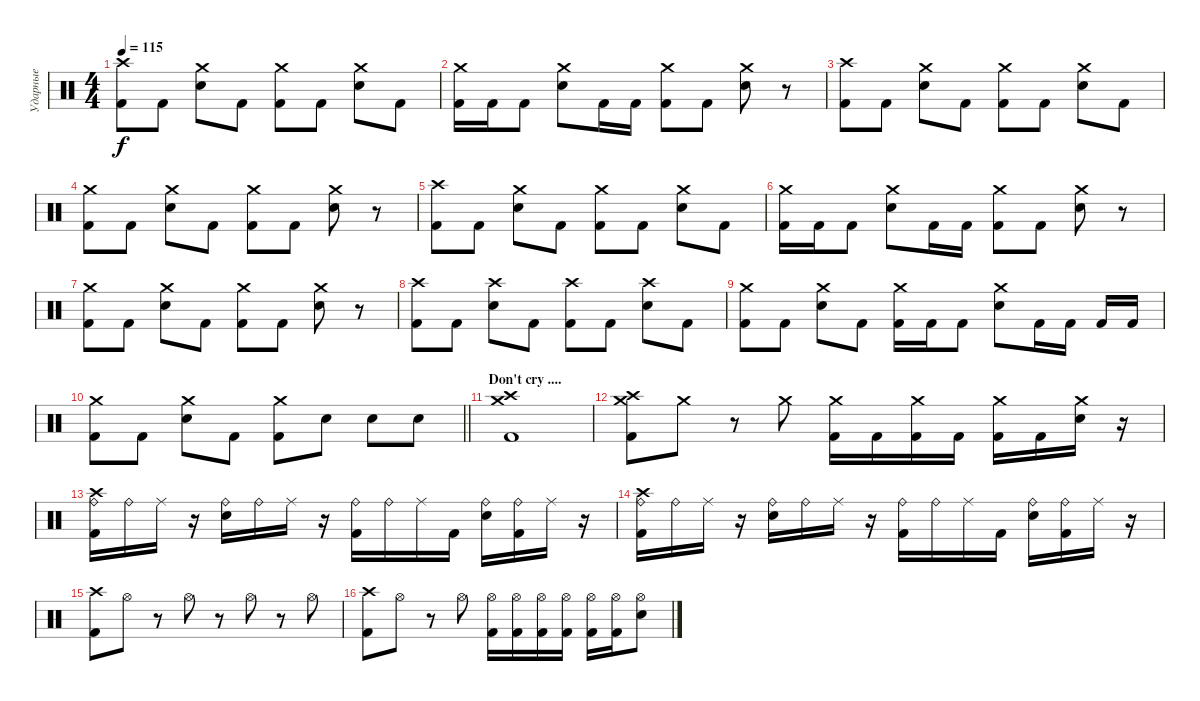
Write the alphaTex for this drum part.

\track ("Ударные" "Ударные") {instrument percussion}
\staff {score}
\articulation defaults
\ts (4 4)
\tempo 115
\clef neutral
\ks c
("Crash high (hit)" "Kick (hit) 2").8{dy f} "Kick (hit) 2".8 ("Crash medium (hit)" "Electric Snare (hit)").8 "Kick (hit) 2".8 ("Crash medium (hit)" "Kick (hit) 2").8 "Kick (hit) 2".8 ("Crash medium (hit)" "Electric Snare (hit)").8 "Kick (hit) 2".8 |
("Crash medium (hit)" "Kick (hit) 2").16 "Kick (hit) 2".16 "Kick (hit) 2".8 ("Crash medium (hit)" "Electric Snare (hit)").8 "Kick (hit) 2".16 "Kick (hit) 2".16 ("Crash medium (hit)" "Kick (hit) 2").8 "Kick (hit) 2".8 ("Crash medium (hit)" "Electric Snare (hit)").8 r.8 |
("Crash high (hit)" "Kick (hit) 2").8 "Kick (hit) 2".8 ("Crash medium (hit)" "Electric Snare (hit)").8 "Kick (hit) 2".8 ("Crash medium (hit)" "Kick (hit) 2").8 "Kick (hit) 2".8 ("Crash medium (hit)" "Electric Snare (hit)").8 "Kick (hit) 2".8 |
("Crash medium (hit)" "Kick (hit) 2").8 "Kick (hit) 2".8 ("Crash medium (hit)" "Electric Snare (hit)").8 "Kick (hit) 2".8 ("Crash medium (hit)" "Kick (hit) 2").8 "Kick (hit) 2".8 ("Crash medium (hit)" "Electric Snare (hit)").8 r.8 |
("Crash high (hit)" "Kick (hit) 2").8 "Kick (hit) 2".8 ("Crash medium (hit)" "Electric Snare (hit)").8 "Kick (hit) 2".8 ("Crash medium (hit)" "Kick (hit) 2").8 "Kick (hit) 2".8 ("Crash medium (hit)" "Electric Snare (hit)").8 "Kick (hit) 2".8 |
("Crash medium (hit)" "Kick (hit) 2").16 "Kick (hit) 2".16 "Kick (hit) 2".8 ("Crash medium (hit)" "Electric Snare (hit)").8 "Kick (hit) 2".16 "Kick (hit) 2".16 ("Crash medium (hit)" "Kick (hit) 2").8 "Kick (hit) 2".8 ("Crash medium (hit)" "Electric Snare (hit)").8 r.8 |
("Crash medium (hit)" "Kick (hit) 2").8 "Kick (hit) 2".8 ("Crash medium (hit)" "Electric Snare (hit)").8 "Kick (hit) 2".8 ("Crash medium (hit)" "Kick (hit) 2").8 "Kick (hit) 2".8 ("Crash medium (hit)" "Electric Snare (hit)").8 r.8 |
("Crash high (hit)" "Kick (hit) 2").8 "Kick (hit) 2".8 ("Crash high (hit)" "Electric Snare (hit)").8 "Kick (hit) 2".8 ("Crash high (hit)" "Kick (hit) 2").8 "Kick (hit) 2".8 ("Crash high (hit)" "Electric Snare (hit)").8 "Kick (hit) 2".8 |
("Crash medium (hit)" "Kick (hit) 2").8 "Kick (hit) 2".8 ("Crash medium (hit)" "Electric Snare (hit)").8 "Kick (hit) 2".8 ("Crash medium (hit)" "Kick (hit) 2").16 "Kick (hit) 2".16 "Kick (hit) 2".8 ("Crash medium (hit)" "Electric Snare (hit)").8 "Kick (hit) 2".16 "Kick (hit) 2".16 "Kick (hit) 2".16 "Kick (hit) 2".16 |
\barLineRight lightlight
("Crash medium (hit)" "Kick (hit) 2").8 "Kick (hit) 2".8 ("Crash medium (hit)" "Electric Snare (hit)").8 "Kick (hit) 2".8 ("Crash medium (hit)" "Kick (hit) 2").8 "Electric Snare (hit)".8 "Electric Snare (hit)".8 "Electric Snare (hit)".8 |
\section ("" "Don't cry ....")
("Crash high (hit)" "Crash medium (hit)" "Kick (hit) 2").1 |
("Crash medium (hit)" "Crash high (hit)" "Kick (hit) 2").8 "Crash medium (hit)".8 r.8 "Crash medium (hit)".8 ("Crash medium (hit)" "Kick (hit) 2").16 "Kick (hit) 2".16 ("Crash medium (hit)" "Kick (hit) 2").16 "Kick (hit) 2".16 ("Crash medium (hit)" "Kick (hit) 2").16 "Kick (hit) 2".16 ("Crash medium (hit)" "Electric Snare (hit)").16 r.16 |
("Crash high (hit)" "Ride (bell)" "Kick (hit) 2").16 "Ride (bell)".16 "Ride (middle)".16 r.16 ("Ride (bell)" "Electric Snare (hit)").16 "Ride (bell)".16 "Ride (middle)".16 r.16 ("Ride (bell)" "Kick (hit) 2").16 "Ride (bell)".16 "Ride (middle)".16 "Kick (hit) 2".16 ("Ride (bell)" "Electric Snare (hit)").16 ("Ride (bell)" "Kick (hit) 2").16 "Ride (middle)".16 r.16 |
("Crash high (hit)" "Ride (bell)" "Kick (hit) 2").16 "Ride (bell)".16 "Ride (middle)".16 r.16 ("Ride (bell)" "Electric Snare (hit)").16 "Ride (bell)".16 "Ride (middle)".16 r.16 ("Ride (bell)" "Kick (hit) 2").16 "Ride (bell)".16 "Ride (middle)".16 "Kick (hit) 2".16 ("Ride (bell)" "Electric Snare (hit)").16 ("Ride (bell)" "Kick (hit) 2").16 "Ride (middle)".16 r.16 |
("Crash high (hit)" "Kick (hit) 2").8 "Hi-Hat (open)".8 r.8 "Hi-Hat (open)".8 r.8 "Hi-Hat (open)".8 r.8 "Hi-Hat (open)".8 |
("Crash high (hit)" "Kick (hit) 2").8 "Hi-Hat (open)".8 r.8 "Hi-Hat (open)".8 ("Hi-Hat (open)" "Kick (hit) 2").16 ("Hi-Hat (open)" "Kick (hit) 2").16 ("Hi-Hat (open)" "Kick (hit) 2").16 ("Hi-Hat (open)" "Kick (hit) 2").16 ("Hi-Hat (open)" "Kick (hit) 2").16 ("Hi-Hat (open)" "Kick (hit) 2").16 ("Hi-Hat (open)" "Electric Snare (hit)").8
